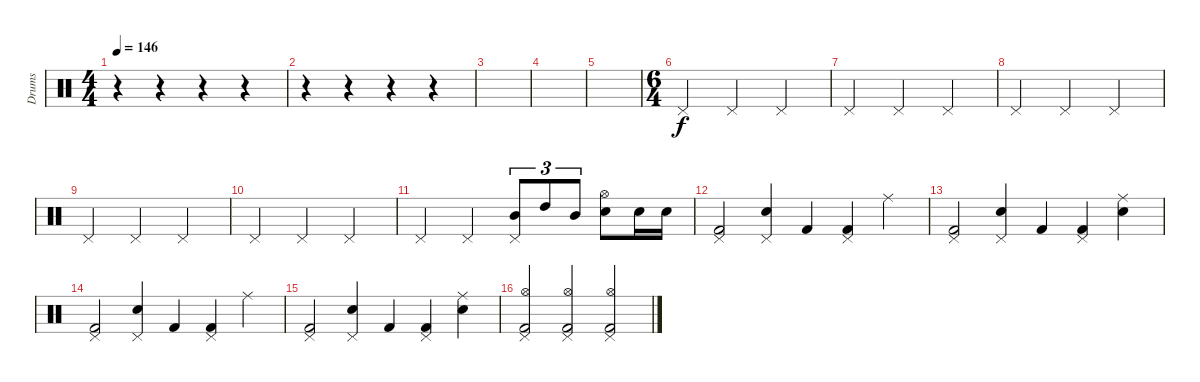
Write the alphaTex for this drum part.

\track ("Drums" "Drums") {instrument percussion}
\staff {score}
\articulation defaults
\ts (4 4)
\tempo 146
\clef neutral
\ks c
r.4{dy f} r.4 r.4 r.4 |
r.4 r.4 r.4 r.4 |
|
|
|
\ts (6 4)
"Pedal Hi-Hat (hit)".2 "Pedal Hi-Hat (hit)".2 "Pedal Hi-Hat (hit)".2 |
"Pedal Hi-Hat (hit)".2 "Pedal Hi-Hat (hit)".2 "Pedal Hi-Hat (hit)".2 |
"Pedal Hi-Hat (hit)".2 "Pedal Hi-Hat (hit)".2 "Pedal Hi-Hat (hit)".2 |
"Pedal Hi-Hat (hit)".2 "Pedal Hi-Hat (hit)".2 "Pedal Hi-Hat (hit)".2 |
"Pedal Hi-Hat (hit)".2 "Pedal Hi-Hat (hit)".2 "Pedal Hi-Hat (hit)".2 |
"Pedal Hi-Hat (hit)".2 "Pedal Hi-Hat (hit)".2 ("Pedal Hi-Hat (hit)" "Mid Tom (hit)").8{tu (3 2)} "High Tom (hit)".8{tu (3 2)} "Mid Tom (hit)".8{tu (3 2)} ("Hi-Hat (open)" "Electric Snare (hit)").8 "Electric Snare (hit)".16 "Electric Snare (hit)".16 |
("Pedal Hi-Hat (hit)" "Kick (hit) 2").2 ("Pedal Hi-Hat (hit)" "Electric Snare (hit)").4 "Kick (hit) 2".4 ("Pedal Hi-Hat (hit)" "Kick (hit) 2").4 "Ride (middle)".4 |
("Pedal Hi-Hat (hit)" "Kick (hit) 2").2 ("Pedal Hi-Hat (hit)" "Electric Snare (hit)").4 "Kick (hit) 2".4 ("Pedal Hi-Hat (hit)" "Kick (hit) 2").4 ("Ride (middle)" "Electric Snare (hit)").4 |
("Pedal Hi-Hat (hit)" "Kick (hit) 2").2 ("Pedal Hi-Hat (hit)" "Electric Snare (hit)").4 "Kick (hit) 2".4 ("Pedal Hi-Hat (hit)" "Kick (hit) 2").4 "Ride (middle)".4 |
("Pedal Hi-Hat (hit)" "Kick (hit) 2").2 ("Pedal Hi-Hat (hit)" "Electric Snare (hit)").4 "Kick (hit) 2".4 ("Pedal Hi-Hat (hit)" "Kick (hit) 2").4 ("Ride (middle)" "Electric Snare (hit)").4 |
("Pedal Hi-Hat (hit)" "Hi-Hat (open)" "Kick (hit) 2").2 ("Pedal Hi-Hat (hit)" "Kick (hit) 2" "Hi-Hat (open)").2 ("Pedal Hi-Hat (hit)" "Hi-Hat (open)" "Kick (hit) 2").2
